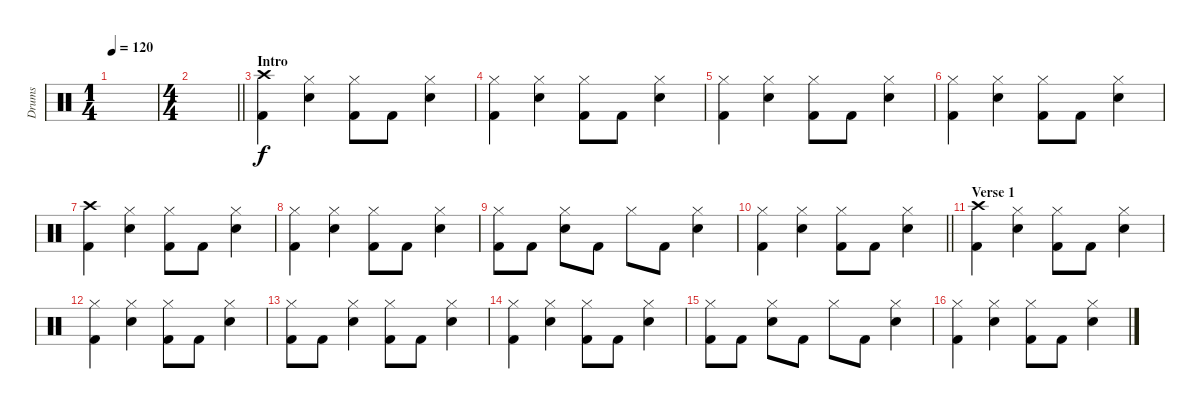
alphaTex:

\track ("Drums" "Drums") {instrument percussion}
\staff {score}
\articulation defaults
\ts (1 4)
\tempo 120
\clef neutral
\ks c
|
\ts (4 4)
\barLineRight lightlight
|
\section ("" "Intro")
("Crash high (hit)" "Kick (hit) 2").4 ("Hi-Hat (closed)" "Snare (hit) 2").4 ("Hi-Hat (closed)" "Kick (hit) 2").8 "Kick (hit) 2".8 ("Hi-Hat (closed)" "Snare (hit) 2").4 |
("Hi-Hat (closed)" "Kick (hit) 2").4 ("Hi-Hat (closed)" "Snare (hit) 2").4 ("Hi-Hat (closed)" "Kick (hit) 2").8 "Kick (hit) 2".8 ("Hi-Hat (closed)" "Snare (hit) 2").4 |
("Hi-Hat (closed)" "Kick (hit) 2").4 ("Hi-Hat (closed)" "Snare (hit) 2").4 ("Hi-Hat (closed)" "Kick (hit) 2").8 "Kick (hit) 2".8 ("Hi-Hat (closed)" "Snare (hit) 2").4 |
("Hi-Hat (closed)" "Kick (hit) 2").4 ("Hi-Hat (closed)" "Snare (hit) 2").4 ("Hi-Hat (closed)" "Kick (hit) 2").8 "Kick (hit) 2".8 ("Hi-Hat (closed)" "Snare (hit) 2").4 |
("Crash high (hit)" "Kick (hit) 2").4 ("Hi-Hat (closed)" "Snare (hit) 2").4 ("Hi-Hat (closed)" "Kick (hit) 2").8 "Kick (hit) 2".8 ("Hi-Hat (closed)" "Snare (hit) 2").4 |
("Hi-Hat (closed)" "Kick (hit) 2").4 ("Hi-Hat (closed)" "Snare (hit) 2").4 ("Hi-Hat (closed)" "Kick (hit) 2").8 "Kick (hit) 2".8 ("Hi-Hat (closed)" "Snare (hit) 2").4 |
("Hi-Hat (closed)" "Kick (hit) 2").8 "Kick (hit) 2".8 ("Hi-Hat (closed)" "Snare (hit) 2").8 "Kick (hit) 2".8 "Hi-Hat (closed)".8 "Kick (hit) 2".8 ("Hi-Hat (closed)" "Snare (hit) 2").4 |
\barLineRight lightlight
("Hi-Hat (closed)" "Kick (hit) 2").4 ("Hi-Hat (closed)" "Snare (hit) 2").4 ("Hi-Hat (closed)" "Kick (hit) 2").8 "Kick (hit) 2".8 ("Hi-Hat (closed)" "Snare (hit) 2").4 |
\section ("" "Verse 1")
("Crash high (hit)" "Kick (hit) 2").4 ("Hi-Hat (closed)" "Snare (hit) 2").4 ("Hi-Hat (closed)" "Kick (hit) 2").8 "Kick (hit) 2".8 ("Hi-Hat (closed)" "Snare (hit) 2").4 |
("Hi-Hat (closed)" "Kick (hit) 2").4 ("Hi-Hat (closed)" "Snare (hit) 2").4 ("Hi-Hat (closed)" "Kick (hit) 2").8 "Kick (hit) 2".8 ("Hi-Hat (closed)" "Snare (hit) 2").4 |
("Hi-Hat (closed)" "Kick (hit) 2").8 "Kick (hit) 2".8 ("Hi-Hat (closed)" "Snare (hit) 2").4 ("Hi-Hat (closed)" "Kick (hit) 2").8 "Kick (hit) 2".8 ("Hi-Hat (closed)" "Snare (hit) 2").4 |
("Hi-Hat (closed)" "Kick (hit) 2").4 ("Hi-Hat (closed)" "Snare (hit) 2").4 ("Hi-Hat (closed)" "Kick (hit) 2").8 "Kick (hit) 2".8 ("Hi-Hat (closed)" "Snare (hit) 2").4 |
("Hi-Hat (closed)" "Kick (hit) 2").8 "Kick (hit) 2".8 ("Hi-Hat (closed)" "Snare (hit) 2").8 "Kick (hit) 2".8 "Hi-Hat (closed)".8 "Kick (hit) 2".8 ("Hi-Hat (closed)" "Snare (hit) 2").4 |
("Hi-Hat (closed)" "Kick (hit) 2").4 ("Hi-Hat (closed)" "Snare (hit) 2").4 ("Hi-Hat (closed)" "Kick (hit) 2").8 "Kick (hit) 2".8 ("Hi-Hat (closed)" "Snare (hit) 2").4
